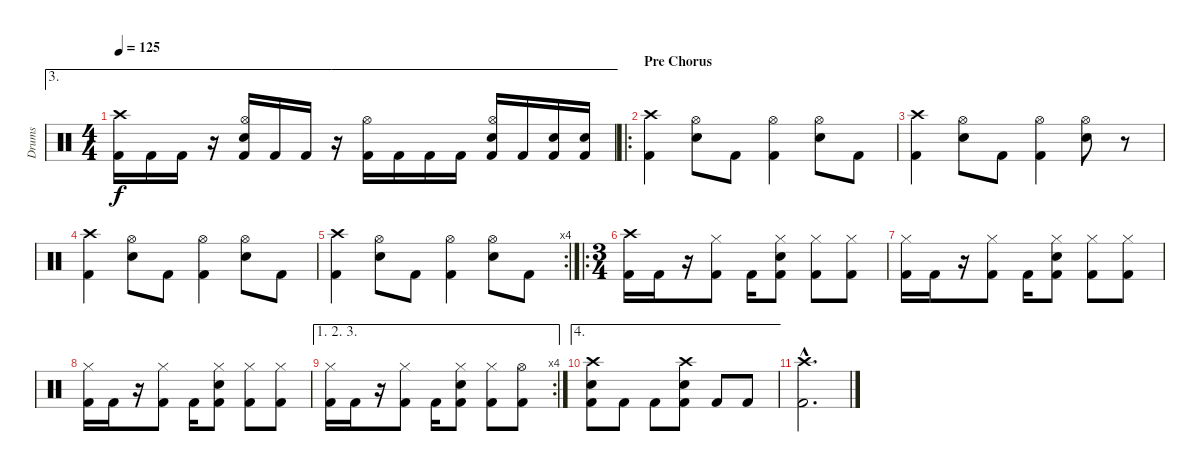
\track ("Drums" "Drums") {instrument percussion}
\staff {score}
\articulation defaults
\ae 3
\ts (4 4)
\tempo 125
\clef neutral
\ks c
("Crash high (hit)" "Kick (hit) 2").16{dy f} "Kick (hit) 2".16 "Kick (hit) 2".16 r.16 ("Hi-Hat (open)" "Snare (hit) 2" "Kick (hit) 2").16 "Kick (hit) 2".16 "Kick (hit) 2".16 r.16 ("Hi-Hat (open)" "Kick (hit) 2").16 "Kick (hit) 2".16 "Kick (hit) 2".16 "Kick (hit) 2".16 ("Hi-Hat (open)" "Snare (hit) 2" "Kick (hit) 2").16 "Kick (hit) 2".16 ("Snare (hit) 2" "Kick (hit) 2").16 ("Snare (hit) 2" "Kick (hit) 2").16 |
\ro
\section ("" "Pre Chorus")
("Crash high (hit)" "Kick (hit) 2").4 ("Hi-Hat (open)" "Snare (hit) 2").8 "Kick (hit) 2".8 ("Hi-Hat (open)" "Kick (hit) 2").4 ("Hi-Hat (open)" "Snare (hit) 2").8 "Kick (hit) 2".8 |
("Crash high (hit)" "Kick (hit) 2").4 ("Hi-Hat (open)" "Snare (hit) 2").8 "Kick (hit) 2".8 ("Hi-Hat (open)" "Kick (hit) 2").4 ("Hi-Hat (open)" "Snare (hit) 2").8 r.8 |
("Crash high (hit)" "Kick (hit) 2").4 ("Hi-Hat (open)" "Snare (hit) 2").8 "Kick (hit) 2".8 ("Hi-Hat (open)" "Kick (hit) 2").4 ("Hi-Hat (open)" "Snare (hit) 2").8 "Kick (hit) 2".8 |
\rc 4
("Crash high (hit)" "Kick (hit) 2").4 ("Hi-Hat (open)" "Snare (hit) 2").8 "Kick (hit) 2".8 ("Hi-Hat (open)" "Kick (hit) 2").4 ("Hi-Hat (open)" "Snare (hit) 2").8 "Kick (hit) 2".8 |
\ro
\ts (3 4)
("Crash high (hit)" "Kick (hit) 2").16 "Kick (hit) 2".16 r.16 ("Hi-Hat (closed)" "Kick (hit) 2").8 "Kick (hit) 2".16 ("Hi-Hat (closed)" "Snare (hit) 2" "Kick (hit) 2").8 ("Hi-Hat (closed)" "Kick (hit) 2").8 ("Hi-Hat (closed)" "Kick (hit) 2").8 |
("Hi-Hat (closed)" "Kick (hit) 2").16 "Kick (hit) 2".16 r.16 ("Hi-Hat (closed)" "Kick (hit) 2").8 "Kick (hit) 2".16 ("Hi-Hat (closed)" "Snare (hit) 2" "Kick (hit) 2").8 ("Hi-Hat (closed)" "Kick (hit) 2").8 ("Hi-Hat (closed)" "Kick (hit) 2").8 |
("Hi-Hat (closed)" "Kick (hit) 2").16 "Kick (hit) 2".16 r.16 ("Hi-Hat (closed)" "Kick (hit) 2").8 "Kick (hit) 2".16 ("Hi-Hat (closed)" "Snare (hit) 2" "Kick (hit) 2").8 ("Hi-Hat (closed)" "Kick (hit) 2").8 ("Hi-Hat (closed)" "Kick (hit) 2").8 |
\ae (1 2 3)
\rc 4
("Hi-Hat (closed)" "Kick (hit) 2").16 "Kick (hit) 2".16 r.16 ("Hi-Hat (closed)" "Kick (hit) 2").8 "Kick (hit) 2".16 ("Hi-Hat (closed)" "Snare (hit) 2" "Kick (hit) 2").8 ("Hi-Hat (closed)" "Kick (hit) 2").8 ("Hi-Hat (open)" "Kick (hit) 2").8 |
\ae 4
("Crash high (hit)" "Snare (hit) 2" "Kick (hit) 2").8 "Kick (hit) 2".8 "Kick (hit) 2".8 ("Crash high (hit)" "Snare (hit) 2" "Kick (hit) 2").8 "Kick (hit) 2".8 "Kick (hit) 2".8 |
("Crash high (hit)"{hac} "Kick (hit) 2"{hac}).2{d}
